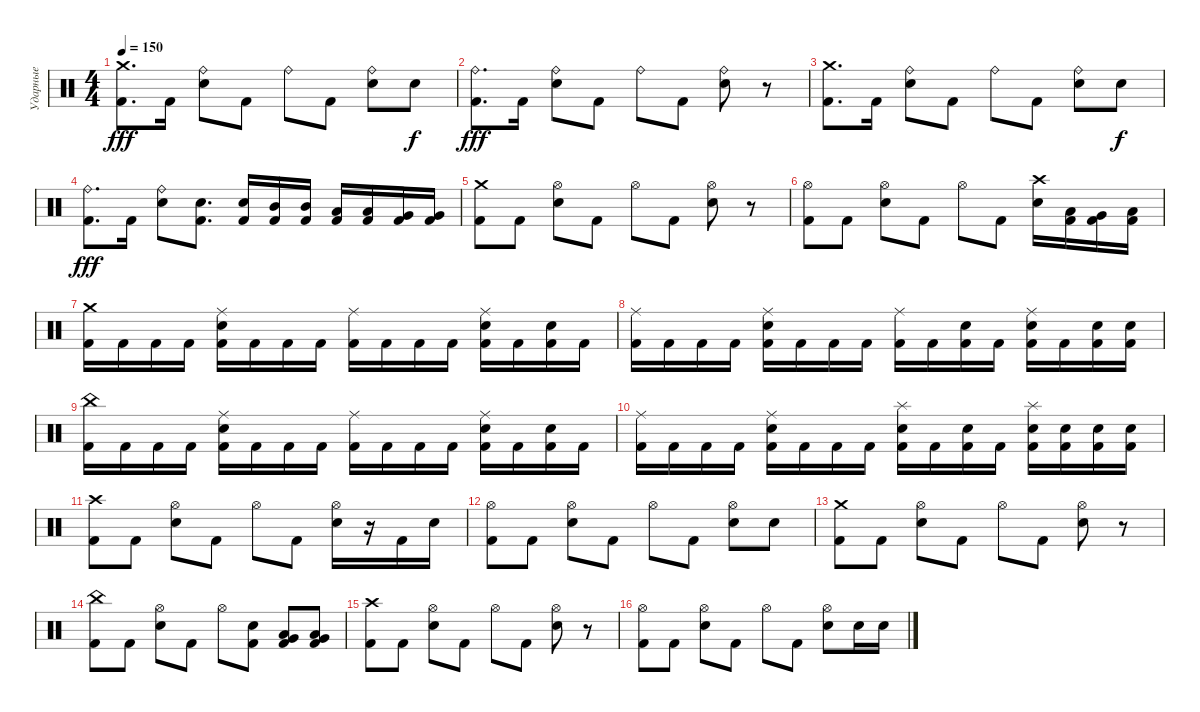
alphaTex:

\track ("Ударные" "Ударные") {instrument percussion}
\staff {score}
\articulation defaults
\ts (4 4)
\tempo 150
\clef neutral
\ks c
("Crash medium (hit)" "Kick (hit) 2").8{d dy fff} "Kick (hit) 2".16 ("Ride (bell)" "Snare (hit) 2").8 "Kick (hit) 2".8 "Ride (bell)".8 "Kick (hit) 2".8 ("Ride (bell)" "Snare (hit) 2").8 "Snare (hit) 2".8{dy f} |
("Ride (bell)" "Kick (hit) 2").8{d dy fff} "Kick (hit) 2".16 ("Ride (bell)" "Snare (hit) 2").8 "Kick (hit) 2".8 "Ride (bell)".8 "Kick (hit) 2".8 ("Ride (bell)" "Snare (hit) 2").8 r.8 |
("Crash medium (hit)" "Kick (hit) 2").8{d} "Kick (hit) 2".16 ("Ride (bell)" "Snare (hit) 2").8 "Kick (hit) 2".8 "Ride (bell)".8 "Kick (hit) 2".8 ("Ride (bell)" "Snare (hit) 2").8 "Snare (hit) 2".8{dy f} |
("Ride (bell)" "Kick (hit) 2").8{d dy fff} "Kick (hit) 2".16 ("Ride (bell)" "Snare (hit) 2").8 ("Snare (hit) 2" "Kick (hit) 2").8{d} ("Snare (hit) 2" "Kick (hit) 2").16 ("Mid Tom (hit)" "Kick (hit) 2").16 ("Mid Tom (hit)" "Kick (hit) 2").16 ("Low Tom (hit)" "Kick (hit) 2").16 ("Low Tom (hit)" "Kick (hit) 2").16 ("Very Low Tom (hit)" "Kick (hit) 2").16 ("Very Low Tom (hit)" "Kick (hit) 2").16 |
("Crash medium (hit)" "Kick (hit) 2").8 "Kick (hit) 2".8 ("Hi-Hat (open)" "Snare (hit) 2").8 "Kick (hit) 2".8 "Hi-Hat (open)".8 "Kick (hit) 2".8 ("Hi-Hat (open)" "Snare (hit) 2").8 r.8 |
("Hi-Hat (open)" "Kick (hit) 2").8 "Kick (hit) 2".8 ("Hi-Hat (open)" "Snare (hit) 2").8 "Kick (hit) 2".8 "Hi-Hat (open)".8 "Kick (hit) 2".8 ("Crash high (hit)" "Snare (hit) 2").16 ("Low Tom (hit)" "Kick (hit) 2").16 ("Very Low Tom (hit)" "Kick (hit) 2").16 ("Low Floor Tom (hit)" "Kick (hit) 2").16 |
("Crash medium (hit)" "Kick (hit) 2").16 "Kick (hit) 2".16 "Kick (hit) 2".16 "Kick (hit) 2".16 ("Ride (middle)" "Snare (hit) 2" "Kick (hit) 2").16 "Kick (hit) 2".16 "Kick (hit) 2".16 "Kick (hit) 2".16 ("Ride (middle)" "Kick (hit) 2").16 "Kick (hit) 2".16 "Kick (hit) 2".16 "Kick (hit) 2".16 ("Ride (middle)" "Snare (hit) 2" "Kick (hit) 2").16 "Kick (hit) 2".16 ("Snare (hit) 2" "Kick (hit) 2").16 "Kick (hit) 2".16 |
("Ride (middle)" "Kick (hit) 2").16 "Kick (hit) 2".16 "Kick (hit) 2".16 "Kick (hit) 2".16 ("Ride (middle)" "Snare (hit) 2" "Kick (hit) 2").16 "Kick (hit) 2".16 "Kick (hit) 2".16 "Kick (hit) 2".16 ("Ride (middle)" "Kick (hit) 2").16 "Kick (hit) 2".16 ("Snare (hit) 2" "Kick (hit) 2").16 "Kick (hit) 2".16 ("Ride (middle)" "Snare (hit) 2" "Kick (hit) 2").16 "Kick (hit) 2".16 ("Snare (hit) 2" "Kick (hit) 2").16 ("Snare (hit) 2" "Kick (hit) 2").16 |
("China (hit)" "Kick (hit) 2").16 "Kick (hit) 2".16 "Kick (hit) 2".16 "Kick (hit) 2".16 ("Ride (middle)" "Snare (hit) 2" "Kick (hit) 2").16 "Kick (hit) 2".16 "Kick (hit) 2".16 "Kick (hit) 2".16 ("Ride (middle)" "Kick (hit) 2").16 "Kick (hit) 2".16 "Kick (hit) 2".16 "Kick (hit) 2".16 ("Ride (middle)" "Snare (hit) 2" "Kick (hit) 2").16 "Kick (hit) 2".16 ("Snare (hit) 2" "Kick (hit) 2").16 "Kick (hit) 2".16 |
("Ride (middle)" "Kick (hit) 2").16 "Kick (hit) 2".16 "Kick (hit) 2".16 "Kick (hit) 2".16 ("Ride (middle)" "Snare (hit) 2" "Kick (hit) 2").16 "Kick (hit) 2".16 "Kick (hit) 2".16 "Kick (hit) 2".16 ("Splash (hit)" "Snare (hit) 2" "Kick (hit) 2").16 "Kick (hit) 2".16 ("Snare (hit) 2" "Kick (hit) 2").16 "Kick (hit) 2".16 ("Splash (hit)" "Snare (hit) 2" "Kick (hit) 2").16 ("Snare (hit) 2" "Kick (hit) 2").16 ("Snare (hit) 2" "Kick (hit) 2").16 ("Snare (hit) 2" "Kick (hit) 2").16 |
("Crash high (hit)" "Kick (hit) 2").8 "Kick (hit) 2".8 ("Hi-Hat (open)" "Snare (hit) 2").8 "Kick (hit) 2".8 "Hi-Hat (open)".8 "Kick (hit) 2".8 ("Hi-Hat (open)" "Snare (hit) 2").16 r.16 "Kick (hit) 2".16 "Snare (hit) 2".16 |
("Hi-Hat (open)" "Kick (hit) 2").8 "Kick (hit) 2".8 ("Hi-Hat (open)" "Snare (hit) 2").8 "Kick (hit) 2".8 "Hi-Hat (open)".8 "Kick (hit) 2".8 ("Hi-Hat (open)" "Snare (hit) 2").8 "Snare (hit) 2".8 |
("Crash medium (hit)" "Kick (hit) 2").8 "Kick (hit) 2".8 ("Hi-Hat (open)" "Snare (hit) 2").8 "Kick (hit) 2".8 "Hi-Hat (open)".8 "Kick (hit) 2".8 ("Hi-Hat (open)" "Snare (hit) 2").8 r.8 |
("China (hit)" "Kick (hit) 2").8 "Kick (hit) 2".8 ("Hi-Hat (open)" "Snare (hit) 2").8 "Kick (hit) 2".8 "Hi-Hat (open)".8 ("Snare (hit) 2" "Kick (hit) 2").8 ("Low Tom (hit)" "Very Low Tom (hit)" "Kick (hit) 2").8 ("Very Low Tom (hit)" "Low Floor Tom (hit)" "Kick (hit) 2").8 |
("Crash high (hit)" "Kick (hit) 2").8 "Kick (hit) 2".8 ("Hi-Hat (open)" "Snare (hit) 2").8 "Kick (hit) 2".8 "Hi-Hat (open)".8 "Kick (hit) 2".8 ("Hi-Hat (open)" "Snare (hit) 2").8 r.8 |
("Hi-Hat (open)" "Kick (hit) 2").8 "Kick (hit) 2".8 ("Hi-Hat (open)" "Snare (hit) 2").8 "Kick (hit) 2".8 "Hi-Hat (open)".8 "Kick (hit) 2".8 ("Hi-Hat (open)" "Snare (hit) 2").8 "Snare (hit) 2".16 "Snare (hit) 2".16
